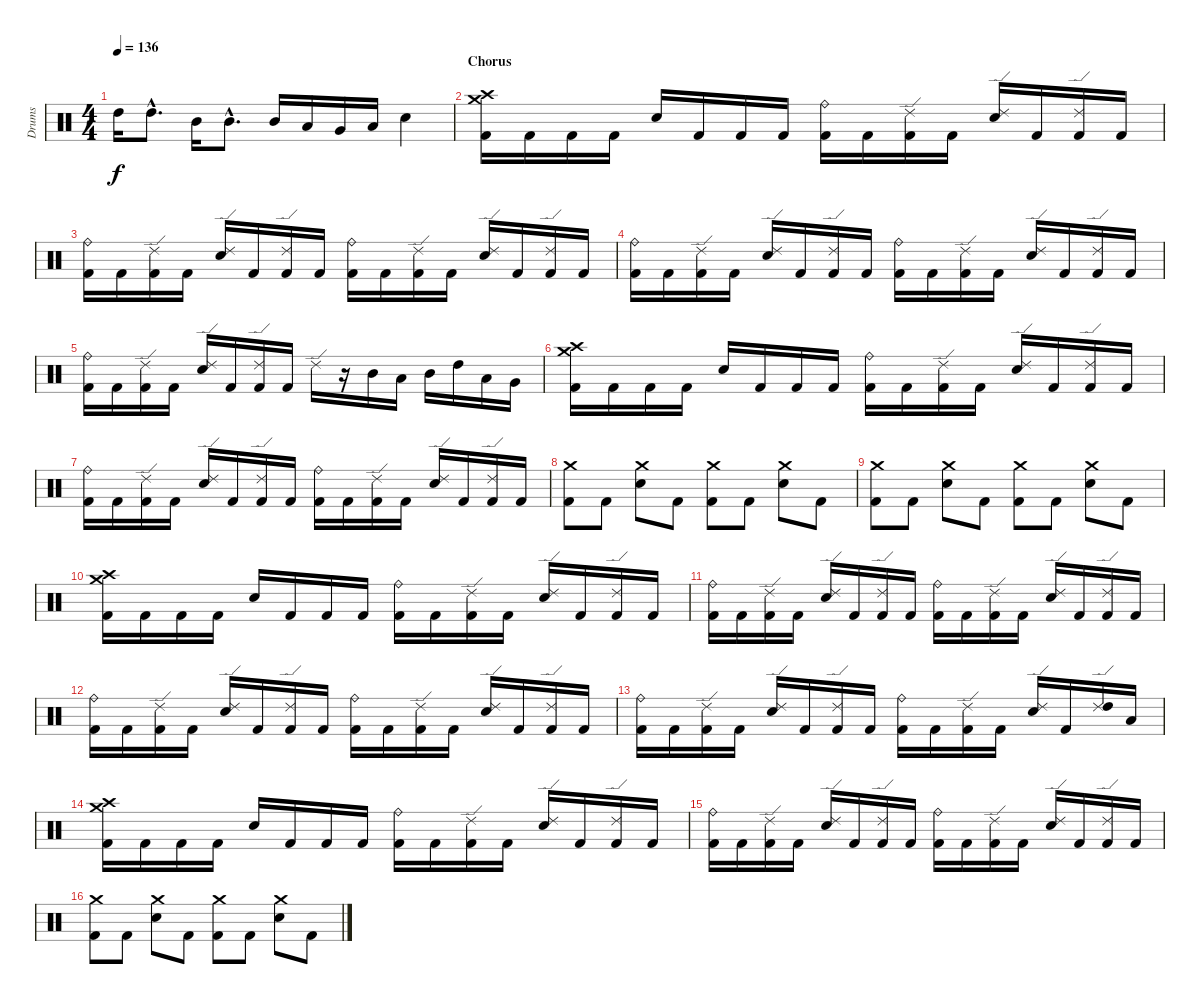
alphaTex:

\track ("Drums" "Drums") {instrument percussion}
\staff {score}
\articulation defaults
\ts (4 4)
\tempo 136
\clef neutral
\ks c "High Tom (hit)".16{dy f} "High Tom (hit)"{hac}.8{d} "Mid Tom (hit)".16 "Mid Tom (hit)"{hac}.8{d} "Mid Tom (hit)".16 "Low Tom (hit)".16 "Very Low Tom (hit)".16 "Low Floor Tom (hit)".16 "Electric Snare (hit)".4
|
\section ("" "Chorus")
("Crash medium (hit)" "Crash high (hit)" "Kick (hit) 2").16 "Kick (hit) 2".16 "Kick (hit) 2".16 "Kick (hit) 2".16 "Electric Snare (hit)".16 "Kick (hit) 2".16 "Kick (hit) 2".16 "Kick (hit) 2".16 ("Ride (bell)" "Kick (hit) 2").16 "Kick (hit) 2".16 ("Ride (edge) 2" "Kick (hit) 2").16 "Kick (hit) 2".16 ("Ride (edge) 2" "Electric Snare (hit)").16 "Kick (hit) 2".16 ("Ride (edge) 2" "Kick (hit) 2").16 "Kick (hit) 2".16 |
("Ride (bell)" "Kick (hit) 2").16 "Kick (hit) 2".16 ("Ride (edge) 2" "Kick (hit) 2").16 "Kick (hit) 2".16 ("Ride (edge) 2" "Electric Snare (hit)").16 "Kick (hit) 2".16 ("Ride (edge) 2" "Kick (hit) 2").16 "Kick (hit) 2".16 ("Ride (bell)" "Kick (hit) 2").16 "Kick (hit) 2".16 ("Ride (edge) 2" "Kick (hit) 2").16 "Kick (hit) 2".16 ("Ride (edge) 2" "Electric Snare (hit)").16 "Kick (hit) 2".16 ("Ride (edge) 2" "Kick (hit) 2").16 "Kick (hit) 2".16 |
("Ride (bell)" "Kick (hit) 2").16 "Kick (hit) 2".16 ("Ride (edge) 2" "Kick (hit) 2").16 "Kick (hit) 2".16 ("Ride (edge) 2" "Electric Snare (hit)").16 "Kick (hit) 2".16 ("Ride (edge) 2" "Kick (hit) 2").16 "Kick (hit) 2".16 ("Ride (bell)" "Kick (hit) 2").16 "Kick (hit) 2".16 ("Ride (edge) 2" "Kick (hit) 2").16 "Kick (hit) 2".16 ("Ride (edge) 2" "Electric Snare (hit)").16 "Kick (hit) 2".16 ("Ride (edge) 2" "Kick (hit) 2").16 "Kick (hit) 2".16 |
("Ride (bell)" "Kick (hit) 2").16 "Kick (hit) 2".16 ("Ride (edge) 2" "Kick (hit) 2").16 "Kick (hit) 2".16 ("Ride (edge) 2" "Electric Snare (hit)").16 "Kick (hit) 2".16 ("Ride (edge) 2" "Kick (hit) 2").16 "Kick (hit) 2".16 "Ride (edge) 2".16 r.16 "Mid Tom (hit)".16 "Low Tom (hit)".16 "Mid Tom (hit)".16 "High Tom (hit)".16 "Low Tom (hit)".16 "Very Low Tom (hit)".16 |
("Crash medium (hit)" "Crash high (hit)" "Kick (hit) 2").16 "Kick (hit) 2".16 "Kick (hit) 2".16 "Kick (hit) 2".16 "Electric Snare (hit)".16 "Kick (hit) 2".16 "Kick (hit) 2".16 "Kick (hit) 2".16 ("Ride (bell)" "Kick (hit) 2").16 "Kick (hit) 2".16 ("Ride (edge) 2" "Kick (hit) 2").16 "Kick (hit) 2".16 ("Ride (edge) 2" "Electric Snare (hit)").16 "Kick (hit) 2".16 ("Ride (edge) 2" "Kick (hit) 2").16 "Kick (hit) 2".16 |
("Ride (bell)" "Kick (hit) 2").16 "Kick (hit) 2".16 ("Ride (edge) 2" "Kick (hit) 2").16 "Kick (hit) 2".16 ("Ride (edge) 2" "Electric Snare (hit)").16 "Kick (hit) 2".16 ("Ride (edge) 2" "Kick (hit) 2").16 "Kick (hit) 2".16 ("Ride (bell)" "Kick (hit) 2").16 "Kick (hit) 2".16 ("Ride (edge) 2" "Kick (hit) 2").16 "Kick (hit) 2".16 ("Ride (edge) 2" "Electric Snare (hit)").16 "Kick (hit) 2".16 ("Ride (edge) 2" "Kick (hit) 2").16 "Kick (hit) 2".16 |
("Crash medium (hit)" "Kick (hit) 2").8 "Kick (hit) 2".8 ("Crash medium (hit)" "Electric Snare (hit)").8 "Kick (hit) 2".8 ("Crash medium (hit)" "Kick (hit) 2").8 "Kick (hit) 2".8 ("Crash medium (hit)" "Electric Snare (hit)").8 "Kick (hit) 2".8 |
("Crash medium (hit)" "Kick (hit) 2").8 "Kick (hit) 2".8 ("Crash medium (hit)" "Electric Snare (hit)").8 "Kick (hit) 2".8 ("Crash medium (hit)" "Kick (hit) 2").8 "Kick (hit) 2".8 ("Crash medium (hit)" "Electric Snare (hit)").8 "Kick (hit) 2".8 |
("Crash medium (hit)" "Crash high (hit)" "Kick (hit) 2").16 "Kick (hit) 2".16 "Kick (hit) 2".16 "Kick (hit) 2".16 "Electric Snare (hit)".16 "Kick (hit) 2".16 "Kick (hit) 2".16 "Kick (hit) 2".16 ("Ride (bell)" "Kick (hit) 2").16 "Kick (hit) 2".16 ("Ride (edge) 2" "Kick (hit) 2").16 "Kick (hit) 2".16 ("Ride (edge) 2" "Electric Snare (hit)").16 "Kick (hit) 2".16 ("Ride (edge) 2" "Kick (hit) 2").16 "Kick (hit) 2".16 |
("Ride (bell)" "Kick (hit) 2").16 "Kick (hit) 2".16 ("Ride (edge) 2" "Kick (hit) 2").16 "Kick (hit) 2".16 ("Ride (edge) 2" "Electric Snare (hit)").16 "Kick (hit) 2".16 ("Ride (edge) 2" "Kick (hit) 2").16 "Kick (hit) 2".16 ("Ride (bell)" "Kick (hit) 2").16 "Kick (hit) 2".16 ("Ride (edge) 2" "Kick (hit) 2").16 "Kick (hit) 2".16 ("Ride (edge) 2" "Electric Snare (hit)").16 "Kick (hit) 2".16 ("Ride (edge) 2" "Kick (hit) 2").16 "Kick (hit) 2".16 |
("Ride (bell)" "Kick (hit) 2").16 "Kick (hit) 2".16 ("Ride (edge) 2" "Kick (hit) 2").16 "Kick (hit) 2".16 ("Ride (edge) 2" "Electric Snare (hit)").16 "Kick (hit) 2".16 ("Ride (edge) 2" "Kick (hit) 2").16 "Kick (hit) 2".16 ("Ride (bell)" "Kick (hit) 2").16 "Kick (hit) 2".16 ("Ride (edge) 2" "Kick (hit) 2").16 "Kick (hit) 2".16 ("Ride (edge) 2" "Electric Snare (hit)").16 "Kick (hit) 2".16 ("Ride (edge) 2" "Kick (hit) 2").16 "Kick (hit) 2".16 |
("Ride (bell)" "Kick (hit) 2").16 "Kick (hit) 2".16 ("Ride (edge) 2" "Kick (hit) 2").16 "Kick (hit) 2".16 ("Ride (edge) 2" "Electric Snare (hit)").16 "Kick (hit) 2".16 ("Ride (edge) 2" "Kick (hit) 2").16 "Kick (hit) 2".16 ("Ride (bell)" "Kick (hit) 2").16 "Kick (hit) 2".16 ("Ride (edge) 2" "Kick (hit) 2").16 "Kick (hit) 2".16 ("Ride (edge) 2" "Electric Snare (hit)").16 "Kick (hit) 2".16 ("Ride (edge) 2" "High Tom (hit)").16 "Low Tom (hit)".16 |
("Crash medium (hit)" "Crash high (hit)" "Kick (hit) 2").16 "Kick (hit) 2".16 "Kick (hit) 2".16 "Kick (hit) 2".16 "Electric Snare (hit)".16 "Kick (hit) 2".16 "Kick (hit) 2".16 "Kick (hit) 2".16 ("Ride (bell)" "Kick (hit) 2").16 "Kick (hit) 2".16 ("Ride (edge) 2" "Kick (hit) 2").16 "Kick (hit) 2".16 ("Ride (edge) 2" "Electric Snare (hit)").16 "Kick (hit) 2".16 ("Ride (edge) 2" "Kick (hit) 2").16 "Kick (hit) 2".16 |
("Ride (bell)" "Kick (hit) 2").16 "Kick (hit) 2".16 ("Ride (edge) 2" "Kick (hit) 2").16 "Kick (hit) 2".16 ("Ride (edge) 2" "Electric Snare (hit)").16 "Kick (hit) 2".16 ("Ride (edge) 2" "Kick (hit) 2").16 "Kick (hit) 2".16 ("Ride (bell)" "Kick (hit) 2").16 "Kick (hit) 2".16 ("Ride (edge) 2" "Kick (hit) 2").16 "Kick (hit) 2".16 ("Ride (edge) 2" "Electric Snare (hit)").16 "Kick (hit) 2".16 ("Ride (edge) 2" "Kick (hit) 2").16 "Kick (hit) 2".16 |
("Crash medium (hit)" "Kick (hit) 2").8 "Kick (hit) 2".8 ("Crash medium (hit)" "Electric Snare (hit)").8 "Kick (hit) 2".8 ("Crash medium (hit)" "Kick (hit) 2").8 "Kick (hit) 2".8 ("Crash medium (hit)" "Electric Snare (hit)").8 "Kick (hit) 2".8
